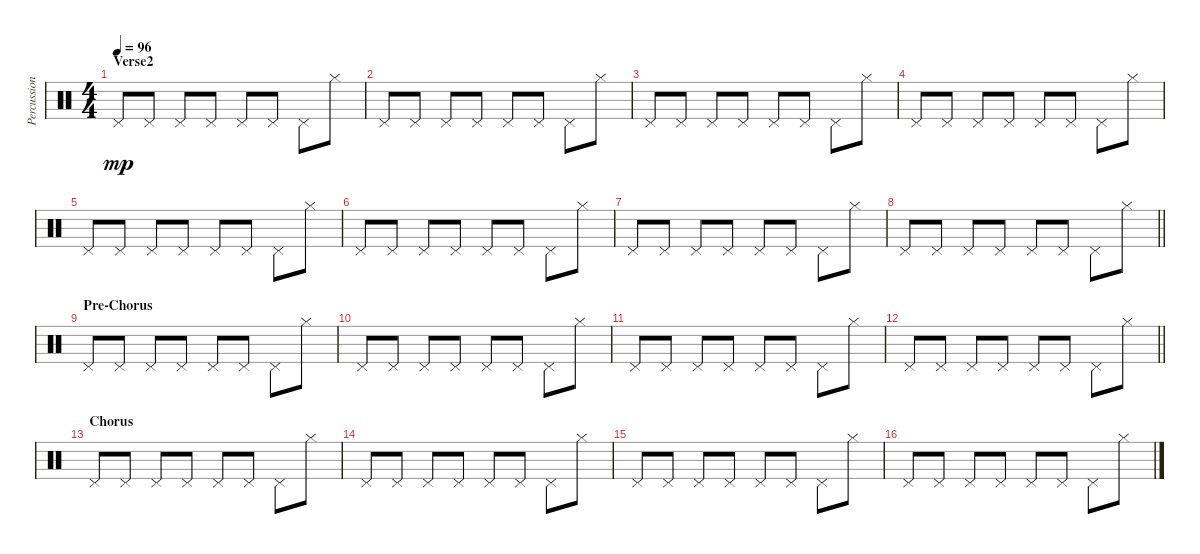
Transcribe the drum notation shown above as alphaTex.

\track ("Percussion" "Percussion") {instrument percussion}
\staff {score}
\articulation defaults
\ts (4 4)
\section ("" "Verse2")
\tempo 96
\clef neutral
\ks c "Pedal Hi-Hat (hit)".8{dy mp} "Pedal Hi-Hat (hit)".8 "Pedal Hi-Hat (hit)".8 "Pedal Hi-Hat (hit)".8 "Pedal Hi-Hat (hit)".8 "Pedal Hi-Hat (hit)".8 "Pedal Hi-Hat (hit)".8 "Hi-Hat (closed)".8
|
"Pedal Hi-Hat (hit)".8 "Pedal Hi-Hat (hit)".8 "Pedal Hi-Hat (hit)".8 "Pedal Hi-Hat (hit)".8 "Pedal Hi-Hat (hit)".8 "Pedal Hi-Hat (hit)".8 "Pedal Hi-Hat (hit)".8 "Hi-Hat (closed)".8 |
"Pedal Hi-Hat (hit)".8 "Pedal Hi-Hat (hit)".8 "Pedal Hi-Hat (hit)".8 "Pedal Hi-Hat (hit)".8 "Pedal Hi-Hat (hit)".8 "Pedal Hi-Hat (hit)".8 "Pedal Hi-Hat (hit)".8 "Hi-Hat (closed)".8 |
"Pedal Hi-Hat (hit)".8 "Pedal Hi-Hat (hit)".8 "Pedal Hi-Hat (hit)".8 "Pedal Hi-Hat (hit)".8 "Pedal Hi-Hat (hit)".8 "Pedal Hi-Hat (hit)".8 "Pedal Hi-Hat (hit)".8 "Hi-Hat (closed)".8 |
"Pedal Hi-Hat (hit)".8 "Pedal Hi-Hat (hit)".8 "Pedal Hi-Hat (hit)".8 "Pedal Hi-Hat (hit)".8 "Pedal Hi-Hat (hit)".8 "Pedal Hi-Hat (hit)".8 "Pedal Hi-Hat (hit)".8 "Hi-Hat (closed)".8 |
"Pedal Hi-Hat (hit)".8 "Pedal Hi-Hat (hit)".8 "Pedal Hi-Hat (hit)".8 "Pedal Hi-Hat (hit)".8 "Pedal Hi-Hat (hit)".8 "Pedal Hi-Hat (hit)".8 "Pedal Hi-Hat (hit)".8 "Hi-Hat (closed)".8 |
"Pedal Hi-Hat (hit)".8 "Pedal Hi-Hat (hit)".8 "Pedal Hi-Hat (hit)".8 "Pedal Hi-Hat (hit)".8 "Pedal Hi-Hat (hit)".8 "Pedal Hi-Hat (hit)".8 "Pedal Hi-Hat (hit)".8 "Hi-Hat (closed)".8 |
\barLineRight lightlight "Pedal Hi-Hat (hit)".8 "Pedal Hi-Hat (hit)".8 "Pedal Hi-Hat (hit)".8 "Pedal Hi-Hat (hit)".8 "Pedal Hi-Hat (hit)".8 "Pedal Hi-Hat (hit)".8 "Pedal Hi-Hat (hit)".8 "Hi-Hat (closed)".8
|
\section ("" "Pre-Chorus")
"Pedal Hi-Hat (hit)".8 "Pedal Hi-Hat (hit)".8 "Pedal Hi-Hat (hit)".8 "Pedal Hi-Hat (hit)".8 "Pedal Hi-Hat (hit)".8 "Pedal Hi-Hat (hit)".8 "Pedal Hi-Hat (hit)".8 "Hi-Hat (closed)".8 |
"Pedal Hi-Hat (hit)".8 "Pedal Hi-Hat (hit)".8 "Pedal Hi-Hat (hit)".8 "Pedal Hi-Hat (hit)".8 "Pedal Hi-Hat (hit)".8 "Pedal Hi-Hat (hit)".8 "Pedal Hi-Hat (hit)".8 "Hi-Hat (closed)".8 |
"Pedal Hi-Hat (hit)".8 "Pedal Hi-Hat (hit)".8 "Pedal Hi-Hat (hit)".8 "Pedal Hi-Hat (hit)".8 "Pedal Hi-Hat (hit)".8 "Pedal Hi-Hat (hit)".8 "Pedal Hi-Hat (hit)".8 "Hi-Hat (closed)".8 |
\barLineRight lightlight "Pedal Hi-Hat (hit)".8 "Pedal Hi-Hat (hit)".8 "Pedal Hi-Hat (hit)".8 "Pedal Hi-Hat (hit)".8 "Pedal Hi-Hat (hit)".8 "Pedal Hi-Hat (hit)".8 "Pedal Hi-Hat (hit)".8 "Hi-Hat (closed)".8
|
\section ("" "Chorus")
"Pedal Hi-Hat (hit)".8 "Pedal Hi-Hat (hit)".8 "Pedal Hi-Hat (hit)".8 "Pedal Hi-Hat (hit)".8 "Pedal Hi-Hat (hit)".8 "Pedal Hi-Hat (hit)".8 "Pedal Hi-Hat (hit)".8 "Hi-Hat (closed)".8 |
"Pedal Hi-Hat (hit)".8 "Pedal Hi-Hat (hit)".8 "Pedal Hi-Hat (hit)".8 "Pedal Hi-Hat (hit)".8 "Pedal Hi-Hat (hit)".8 "Pedal Hi-Hat (hit)".8 "Pedal Hi-Hat (hit)".8 "Hi-Hat (closed)".8 |
"Pedal Hi-Hat (hit)".8 "Pedal Hi-Hat (hit)".8 "Pedal Hi-Hat (hit)".8 "Pedal Hi-Hat (hit)".8 "Pedal Hi-Hat (hit)".8 "Pedal Hi-Hat (hit)".8 "Pedal Hi-Hat (hit)".8 "Hi-Hat (closed)".8 |
"Pedal Hi-Hat (hit)".8 "Pedal Hi-Hat (hit)".8 "Pedal Hi-Hat (hit)".8 "Pedal Hi-Hat (hit)".8 "Pedal Hi-Hat (hit)".8 "Pedal Hi-Hat (hit)".8 "Pedal Hi-Hat (hit)".8 "Hi-Hat (closed)".8
